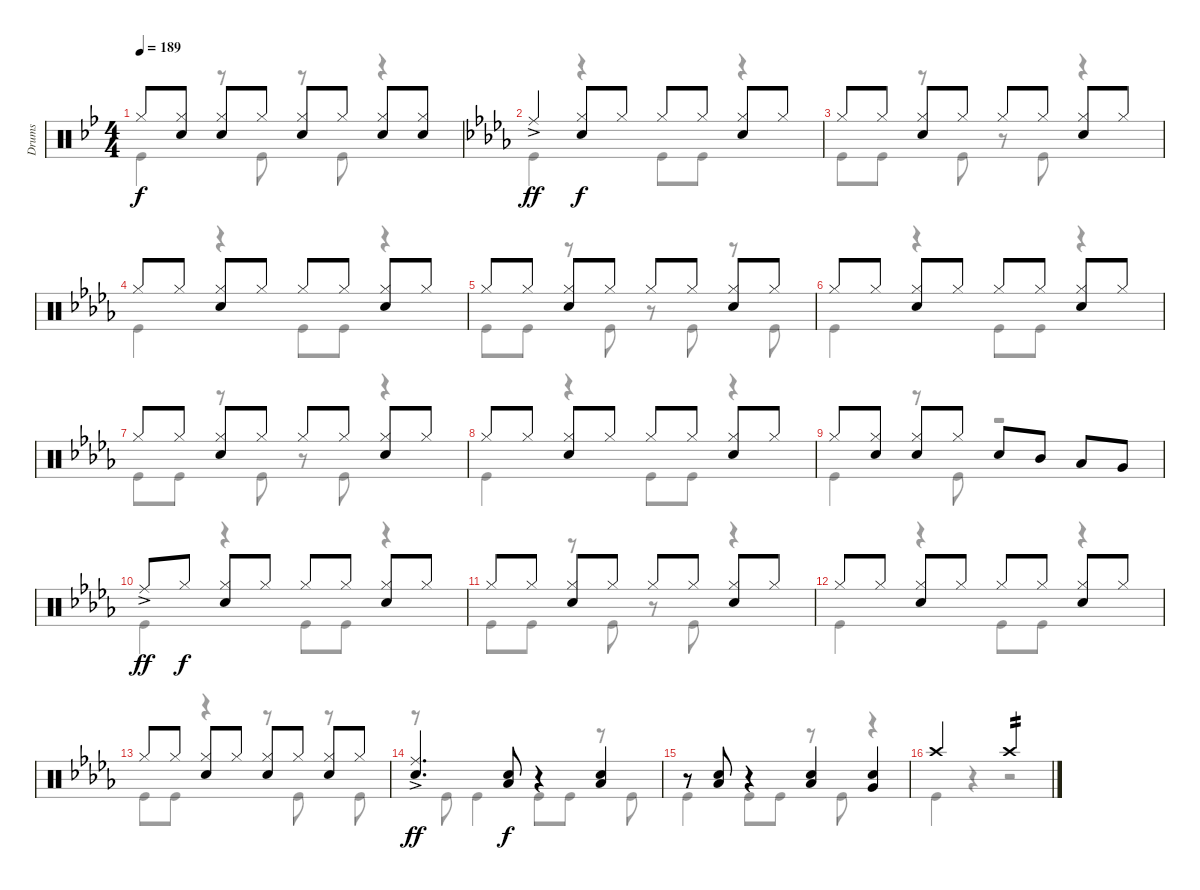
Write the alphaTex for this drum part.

\track ("Drums" "Drums") {instrument percussion}
\staff {score}
\articulation defaults
\voice
\ts (4 4)
\tempo 189
\clef neutral
\ks bb "Hi-Hat (closed)".8{dy f}
("Hi-Hat (closed)" "Snare (hit) 2").8 ("Hi-Hat (closed)" "Snare (hit) 2").8 "Hi-Hat (closed)".8 ("Hi-Hat (closed)" "Snare (hit) 2").8 "Hi-Hat (closed)".8 ("Hi-Hat (closed)" "Snare (hit) 2").8 ("Hi-Hat (closed)" "Snare (hit) 2").8 |
\ks db "Ride (middle)"{ac}.4{dy ff}
("Hi-Hat (closed)" "Snare (hit) 2").8{dy f} "Hi-Hat (closed)".8 "Hi-Hat (closed)".8 "Hi-Hat (closed)".8 ("Hi-Hat (closed)" "Snare (hit) 2").8 "Hi-Hat (closed)".8 |
"Hi-Hat (closed)".8 "Hi-Hat (closed)".8 ("Hi-Hat (closed)" "Snare (hit) 2").8 "Hi-Hat (closed)".8 "Hi-Hat (closed)".8 "Hi-Hat (closed)".8 ("Hi-Hat (closed)" "Snare (hit) 2").8 "Hi-Hat (closed)".8 |
"Hi-Hat (closed)".8 "Hi-Hat (closed)".8 ("Hi-Hat (closed)" "Snare (hit) 2").8 "Hi-Hat (closed)".8 "Hi-Hat (closed)".8 "Hi-Hat (closed)".8 ("Hi-Hat (closed)" "Snare (hit) 2").8 "Hi-Hat (closed)".8 |
"Hi-Hat (closed)".8 "Hi-Hat (closed)".8 ("Hi-Hat (closed)" "Snare (hit) 2").8 "Hi-Hat (closed)".8 "Hi-Hat (closed)".8 "Hi-Hat (closed)".8 ("Hi-Hat (closed)" "Snare (hit) 2").8 "Hi-Hat (closed)".8 |
"Hi-Hat (closed)".8 "Hi-Hat (closed)".8 ("Hi-Hat (closed)" "Snare (hit) 2").8 "Hi-Hat (closed)".8 "Hi-Hat (closed)".8 "Hi-Hat (closed)".8 ("Hi-Hat (closed)" "Snare (hit) 2").8 "Hi-Hat (closed)".8 |
"Hi-Hat (closed)".8 "Hi-Hat (closed)".8 ("Hi-Hat (closed)" "Snare (hit) 2").8 "Hi-Hat (closed)".8 "Hi-Hat (closed)".8 "Hi-Hat (closed)".8 ("Hi-Hat (closed)" "Snare (hit) 2").8 "Hi-Hat (closed)".8 |
"Hi-Hat (closed)".8 "Hi-Hat (closed)".8 ("Hi-Hat (closed)" "Snare (hit) 2").8 "Hi-Hat (closed)".8 "Hi-Hat (closed)".8 "Hi-Hat (closed)".8 ("Hi-Hat (closed)" "Snare (hit) 2").8 "Hi-Hat (closed)".8 |
"Hi-Hat (closed)".8 ("Hi-Hat (closed)" "Snare (hit) 2").8 ("Hi-Hat (closed)" "Snare (hit) 2").8 "Hi-Hat (closed)".8 "Snare (hit) 2".8 "Mid Tom (hit)".8 "Low Tom (hit)".8 "Very Low Tom (hit)".8 |
"Ride (middle)"{ac}.8{dy ff} "Hi-Hat (closed)".8{dy f} ("Hi-Hat (closed)" "Snare (hit) 2").8 "Hi-Hat (closed)".8 "Hi-Hat (closed)".8 "Hi-Hat (closed)".8 ("Hi-Hat (closed)" "Snare (hit) 2").8 "Hi-Hat (closed)".8 |
"Hi-Hat (closed)".8 "Hi-Hat (closed)".8 ("Hi-Hat (closed)" "Snare (hit) 2").8 "Hi-Hat (closed)".8 "Hi-Hat (closed)".8 "Hi-Hat (closed)".8 ("Hi-Hat (closed)" "Snare (hit) 2").8 "Hi-Hat (closed)".8 |
"Hi-Hat (closed)".8 "Hi-Hat (closed)".8 ("Hi-Hat (closed)" "Snare (hit) 2").8 "Hi-Hat (closed)".8 "Hi-Hat (closed)".8 "Hi-Hat (closed)".8 ("Hi-Hat (closed)" "Snare (hit) 2").8 "Hi-Hat (closed)".8 |
"Hi-Hat (closed)".8 "Hi-Hat (closed)".8 ("Hi-Hat (closed)" "Snare (hit) 2").8 "Hi-Hat (closed)".8 ("Hi-Hat (closed)" "Snare (hit) 2").8 "Hi-Hat (closed)".8 ("Hi-Hat (closed)" "Snare (hit) 2").8 "Hi-Hat (closed)".8 |
("Ride (middle)"{ac} "Snare (hit) 2").4{d dy ff} ("Snare (hit) 2" "Low Tom (hit)").8{dy f} r.4 ("Snare (hit) 2" "Low Tom (hit)").4 |
r.8 ("Snare (hit) 2" "Low Tom (hit)").8 r.4 ("Snare (hit) 2" "Low Tom (hit)").4 ("Snare (hit) 2" "Very Low Tom (hit)").4 |
"Crash high (hit)".2 "Crash high (hit)".2{tp 2}
\voice
\clef neutral
\ottava regular
\simile none
\ks bb "Kick (hit)".4{dy f}
r.8 "Kick (hit)".8 r.8 "Kick (hit)".8 r.4 |
\ks db "Kick (hit)".4
r.4 "Kick (hit)".8 "Kick (hit)".8 r.4 |
"Kick (hit)".8 "Kick (hit)".8 r.8 "Kick (hit)".8 r.8 "Kick (hit)".8 r.4 |
"Kick (hit)".4 r.4 "Kick (hit)".8 "Kick (hit)".8 r.4 |
"Kick (hit)".8 "Kick (hit)".8 r.8 "Kick (hit)".8 r.8 "Kick (hit)".8 r.8 "Kick (hit)".8 |
"Kick (hit)".4 r.4 "Kick (hit)".8 "Kick (hit)".8 r.4 |
"Kick (hit)".8 "Kick (hit)".8 r.8 "Kick (hit)".8 r.8 "Kick (hit)".8 r.4 |
"Kick (hit)".4 r.4 "Kick (hit)".8 "Kick (hit)".8 r.4 |
"Kick (hit)".4 r.8 "Kick (hit)".8 r.2 |
"Kick (hit)".4 r.4 "Kick (hit)".8 "Kick (hit)".8 r.4 |
"Kick (hit)".8 "Kick (hit)".8 r.8 "Kick (hit)".8 r.8 "Kick (hit)".8 r.4 |
"Kick (hit)".4 r.4 "Kick (hit)".8 "Kick (hit)".8 r.4 |
"Kick (hit)".8 "Kick (hit)".8 r.4 r.8 "Kick (hit)".8 r.8 "Kick (hit)".8 |
r.8 "Kick (hit)".8 "Kick (hit)".4 "Kick (hit)".8 "Kick (hit)".8 r.8 "Kick (hit)".8 |
"Kick (hit)".4 "Kick (hit)".8 "Kick (hit)".8 r.8 "Kick (hit)".8 r.4 |
"Kick (hit)".4 r.4 r.2
